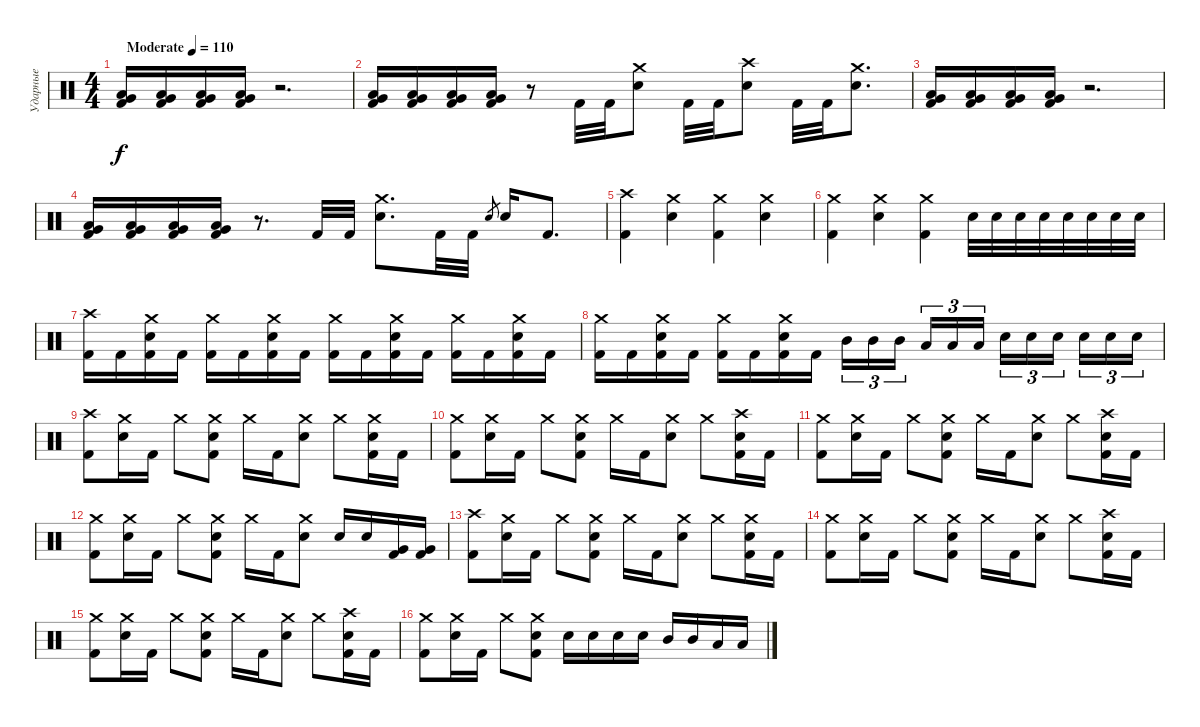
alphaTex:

\track ("Ударные" "Ударные") {instrument percussion}
\staff {score}
\articulation defaults
\ts (4 4)
\tempo (110 "Moderate")
\clef neutral
\ks c
("Low Tom (hit)" "Very Low Tom (hit)" "Kick (hit) 2").16{dy f} ("Low Tom (hit)" "Very Low Tom (hit)" "Kick (hit) 2").16 ("Low Tom (hit)" "Very Low Tom (hit)" "Kick (hit) 2").16 ("Low Tom (hit)" "Very Low Tom (hit)" "Kick (hit) 2").16 r.2{d} |
("Low Tom (hit)" "Very Low Tom (hit)" "Kick (hit) 2").16 ("Low Tom (hit)" "Very Low Tom (hit)" "Kick (hit) 2").16 ("Low Tom (hit)" "Very Low Tom (hit)" "Kick (hit) 2").16 ("Low Tom (hit)" "Very Low Tom (hit)" "Kick (hit) 2").16 r.8 "Kick (hit) 2".32 "Kick (hit) 2".32 ("Crash medium (hit)" "Electric Snare (hit)").8 "Kick (hit) 2".32 "Kick (hit) 2".32 ("Crash high (hit)" "Electric Snare (hit)").8 "Kick (hit) 2".32 "Kick (hit) 2".32 ("Crash medium (hit)" "Electric Snare (hit)").8{d} |
("Low Tom (hit)" "Very Low Tom (hit)" "Kick (hit) 2").16 ("Low Tom (hit)" "Very Low Tom (hit)" "Kick (hit) 2").16 ("Low Tom (hit)" "Very Low Tom (hit)" "Kick (hit) 2").16 ("Low Tom (hit)" "Very Low Tom (hit)" "Kick (hit) 2").16 r.2{d} |
("Low Tom (hit)" "Very Low Tom (hit)" "Kick (hit) 2").16 ("Low Tom (hit)" "Very Low Tom (hit)" "Kick (hit) 2").16 ("Low Tom (hit)" "Very Low Tom (hit)" "Kick (hit) 2").16 ("Low Tom (hit)" "Very Low Tom (hit)" "Kick (hit) 2").16 r.8{d} "Kick (hit) 2".32 "Kick (hit) 2".32 ("Crash medium (hit)" "Electric Snare (hit)").8{d} "Kick (hit) 2".32 "Kick (hit) 2".32 "Electric Snare (hit)".8{gr} "Electric Snare (hit)".16 "Kick (hit) 2".8{d} |
("Crash high (hit)" "Kick (hit) 2").4 ("Crash medium (hit)" "Electric Snare (hit)").4 ("Crash medium (hit)" "Kick (hit) 2").4 ("Crash medium (hit)" "Electric Snare (hit)").4 |
("Crash medium (hit)" "Kick (hit) 2").4 ("Crash medium (hit)" "Electric Snare (hit)").4 ("Crash medium (hit)" "Kick (hit) 2").4 "Electric Snare (hit)".32 "Electric Snare (hit)".32 "Electric Snare (hit)".32 "Electric Snare (hit)".32 "Electric Snare (hit)".32 "Electric Snare (hit)".32 "Electric Snare (hit)".32 "Electric Snare (hit)".32 |
("Crash high (hit)" "Kick (hit) 2").16 "Kick (hit) 2".16 ("Crash medium (hit)" "Electric Snare (hit)" "Kick (hit) 2").16 "Kick (hit) 2".16 ("Crash medium (hit)" "Kick (hit) 2").16 "Kick (hit) 2".16 ("Crash medium (hit)" "Electric Snare (hit)" "Kick (hit) 2").16 "Kick (hit) 2".16 ("Crash medium (hit)" "Kick (hit) 2").16 "Kick (hit) 2".16 ("Crash medium (hit)" "Electric Snare (hit)" "Kick (hit) 2").16 "Kick (hit) 2".16 ("Crash medium (hit)" "Kick (hit) 2").16 "Kick (hit) 2".16 ("Crash medium (hit)" "Electric Snare (hit)" "Kick (hit) 2").16 "Kick (hit) 2".16 |
("Crash medium (hit)" "Kick (hit) 2").16 "Kick (hit) 2".16 ("Crash medium (hit)" "Electric Snare (hit)" "Kick (hit) 2").16 "Kick (hit) 2".16 ("Crash medium (hit)" "Kick (hit) 2").16 "Kick (hit) 2".16 ("Crash medium (hit)" "Electric Snare (hit)" "Kick (hit) 2").16 "Kick (hit) 2".16 "Mid Tom (hit)".16{tu (3 2)} "Mid Tom (hit)".16{tu (3 2)} "Mid Tom (hit)".16{tu (3 2) beam splitsecondary} "Low Tom (hit)".16{tu (3 2)} "Low Tom (hit)".16{tu (3 2)} "Low Tom (hit)".16{tu (3 2)} "Electric Snare (hit)".16{tu (3 2)} "Electric Snare (hit)".16{tu (3 2)} "Electric Snare (hit)".16{tu (3 2) beam splitsecondary} "Electric Snare (hit)".16{tu (3 2)} "Electric Snare (hit)".16{tu (3 2)} "Electric Snare (hit)".16{tu (3 2)} |
("Crash high (hit)" "Kick (hit) 2").8 ("Crash medium (hit)" "Electric Snare (hit)").16 "Kick (hit) 2".16 "Crash medium (hit)".8 ("Crash medium (hit)" "Electric Snare (hit)" "Kick (hit) 2").8 "Crash medium (hit)".16 "Kick (hit) 2".16 ("Crash medium (hit)" "Electric Snare (hit)").8 "Crash medium (hit)".8 ("Crash medium (hit)" "Electric Snare (hit)" "Kick (hit) 2").16 "Kick (hit) 2".16 |
("Crash medium (hit)" "Kick (hit) 2").8 ("Crash medium (hit)" "Electric Snare (hit)").16 "Kick (hit) 2".16 "Crash medium (hit)".8 ("Crash medium (hit)" "Electric Snare (hit)" "Kick (hit) 2").8 "Crash medium (hit)".16 "Kick (hit) 2".16 ("Crash medium (hit)" "Electric Snare (hit)").8 "Crash medium (hit)".8 ("Crash high (hit)" "Electric Snare (hit)" "Kick (hit) 2").16 "Kick (hit) 2".16 |
("Crash medium (hit)" "Kick (hit) 2").8 ("Crash medium (hit)" "Electric Snare (hit)").16 "Kick (hit) 2".16 "Crash medium (hit)".8 ("Crash medium (hit)" "Electric Snare (hit)" "Kick (hit) 2").8 "Crash medium (hit)".16 "Kick (hit) 2".16 ("Crash medium (hit)" "Electric Snare (hit)").8 "Crash medium (hit)".8 ("Crash high (hit)" "Electric Snare (hit)" "Kick (hit) 2").16 "Kick (hit) 2".16 |
("Crash medium (hit)" "Kick (hit) 2").8 ("Crash medium (hit)" "Electric Snare (hit)").16 "Kick (hit) 2".16 "Crash medium (hit)".8 ("Crash medium (hit)" "Electric Snare (hit)" "Kick (hit) 2").8 "Crash medium (hit)".16 "Kick (hit) 2".16 ("Crash medium (hit)" "Electric Snare (hit)").8 "Electric Snare (hit)".16 "Electric Snare (hit)".16 ("Very Low Tom (hit)" "Kick (hit) 2").16 ("Very Low Tom (hit)" "Kick (hit) 2").16 |
("Crash high (hit)" "Kick (hit) 2").8 ("Crash medium (hit)" "Electric Snare (hit)").16 "Kick (hit) 2".16 "Crash medium (hit)".8 ("Crash medium (hit)" "Electric Snare (hit)" "Kick (hit) 2").8 "Crash medium (hit)".16 "Kick (hit) 2".16 ("Crash medium (hit)" "Electric Snare (hit)").8 "Crash medium (hit)".8 ("Crash medium (hit)" "Electric Snare (hit)" "Kick (hit) 2").16 "Kick (hit) 2".16 |
("Crash medium (hit)" "Kick (hit) 2").8 ("Crash medium (hit)" "Electric Snare (hit)").16 "Kick (hit) 2".16 "Crash medium (hit)".8 ("Crash medium (hit)" "Electric Snare (hit)" "Kick (hit) 2").8 "Crash medium (hit)".16 "Kick (hit) 2".16 ("Crash medium (hit)" "Electric Snare (hit)").8 "Crash medium (hit)".8 ("Crash high (hit)" "Electric Snare (hit)" "Kick (hit) 2").16 "Kick (hit) 2".16 |
("Crash medium (hit)" "Kick (hit) 2").8 ("Crash medium (hit)" "Electric Snare (hit)").16 "Kick (hit) 2".16 "Crash medium (hit)".8 ("Crash medium (hit)" "Electric Snare (hit)" "Kick (hit) 2").8 "Crash medium (hit)".16 "Kick (hit) 2".16 ("Crash medium (hit)" "Electric Snare (hit)").8 "Crash medium (hit)".8 ("Crash high (hit)" "Electric Snare (hit)" "Kick (hit) 2").16 "Kick (hit) 2".16 |
("Crash medium (hit)" "Kick (hit) 2").8 ("Crash medium (hit)" "Electric Snare (hit)").16 "Kick (hit) 2".16 "Crash medium (hit)".8 ("Crash medium (hit)" "Electric Snare (hit)" "Kick (hit) 2").8 "Electric Snare (hit)".16 "Electric Snare (hit)".16 "Electric Snare (hit)".16 "Electric Snare (hit)".16 "Mid Tom (hit)".16 "Mid Tom (hit)".16 "Low Tom (hit)".16 "Low Tom (hit)".16
